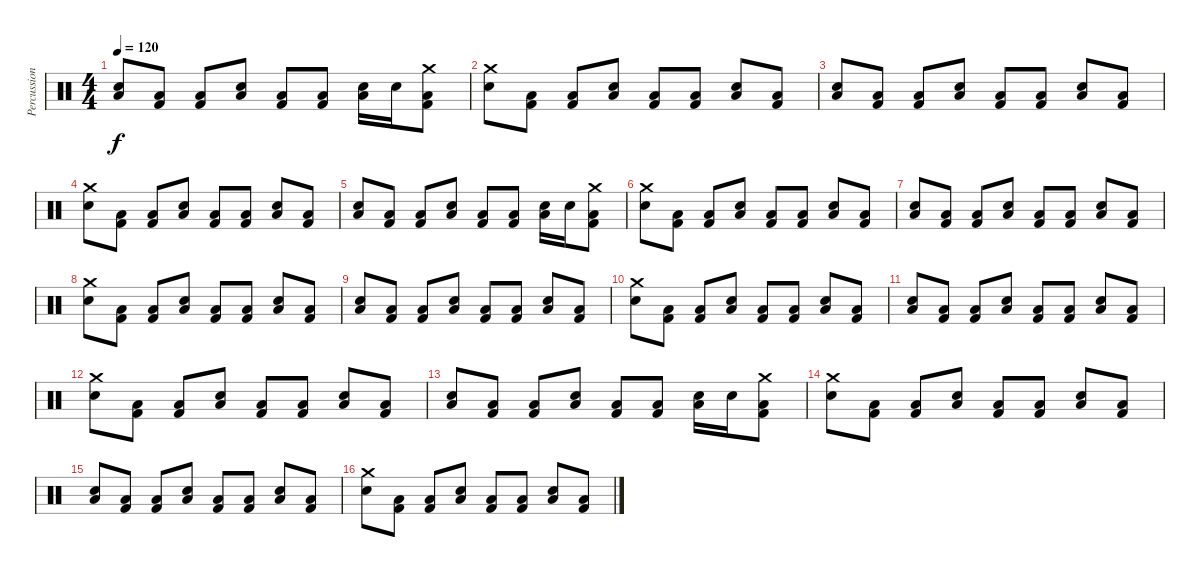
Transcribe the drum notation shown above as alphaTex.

\track ("Percussion" "Percussion") {instrument percussion}
\staff {score}
\articulation defaults
\ts (4 4)
\tempo 120
\clef neutral
\ks c
("Snare (hit) 2" "Low Floor Tom (hit)").8{dy f} ("Low Floor Tom (hit)" "Kick (hit) 2").8 ("Low Floor Tom (hit)" "Kick (hit) 2").8 ("Snare (hit) 2" "Low Floor Tom (hit)").8 ("Low Floor Tom (hit)" "Kick (hit) 2").8 ("Low Floor Tom (hit)" "Kick (hit) 2").8 ("Snare (hit) 2" "Low Floor Tom (hit)").16 "Snare (hit) 2".16 ("Crash medium (hit)" "Low Floor Tom (hit)" "Kick (hit) 2").8 |
("Crash medium (hit)" "Snare (hit) 2").8 ("Low Floor Tom (hit)" "Kick (hit) 2").8 ("Low Floor Tom (hit)" "Kick (hit) 2").8 ("Snare (hit) 2" "Low Floor Tom (hit)").8 ("Low Floor Tom (hit)" "Kick (hit) 2").8 ("Low Floor Tom (hit)" "Kick (hit) 2").8 ("Snare (hit) 2" "Low Floor Tom (hit)").8 ("Low Floor Tom (hit)" "Kick (hit) 2").8 |
("Snare (hit) 2" "Low Floor Tom (hit)").8 ("Low Floor Tom (hit)" "Kick (hit) 2").8 ("Low Floor Tom (hit)" "Kick (hit) 2").8 ("Snare (hit) 2" "Low Floor Tom (hit)").8 ("Low Floor Tom (hit)" "Kick (hit) 2").8 ("Low Floor Tom (hit)" "Kick (hit) 2").8 ("Snare (hit) 2" "Low Floor Tom (hit)").8 ("Low Floor Tom (hit)" "Kick (hit) 2").8 |
("Crash medium (hit)" "Snare (hit) 2").8 ("Low Floor Tom (hit)" "Kick (hit) 2").8 ("Low Floor Tom (hit)" "Kick (hit) 2").8 ("Snare (hit) 2" "Low Floor Tom (hit)").8 ("Low Floor Tom (hit)" "Kick (hit) 2").8 ("Low Floor Tom (hit)" "Kick (hit) 2").8 ("Snare (hit) 2" "Low Floor Tom (hit)").8 ("Low Floor Tom (hit)" "Kick (hit) 2").8 |
("Snare (hit) 2" "Low Floor Tom (hit)").8 ("Low Floor Tom (hit)" "Kick (hit) 2").8 ("Low Floor Tom (hit)" "Kick (hit) 2").8 ("Snare (hit) 2" "Low Floor Tom (hit)").8 ("Low Floor Tom (hit)" "Kick (hit) 2").8 ("Low Floor Tom (hit)" "Kick (hit) 2").8 ("Snare (hit) 2" "Low Floor Tom (hit)").16 "Snare (hit) 2".16 ("Crash medium (hit)" "Low Floor Tom (hit)" "Kick (hit) 2").8 |
("Crash medium (hit)" "Snare (hit) 2").8 ("Low Floor Tom (hit)" "Kick (hit) 2").8 ("Low Floor Tom (hit)" "Kick (hit) 2").8 ("Snare (hit) 2" "Low Floor Tom (hit)").8 ("Low Floor Tom (hit)" "Kick (hit) 2").8 ("Low Floor Tom (hit)" "Kick (hit) 2").8 ("Snare (hit) 2" "Low Floor Tom (hit)").8 ("Low Floor Tom (hit)" "Kick (hit) 2").8 |
("Snare (hit) 2" "Low Floor Tom (hit)").8 ("Low Floor Tom (hit)" "Kick (hit) 2").8 ("Low Floor Tom (hit)" "Kick (hit) 2").8 ("Snare (hit) 2" "Low Floor Tom (hit)").8 ("Low Floor Tom (hit)" "Kick (hit) 2").8 ("Low Floor Tom (hit)" "Kick (hit) 2").8 ("Snare (hit) 2" "Low Floor Tom (hit)").8 ("Low Floor Tom (hit)" "Kick (hit) 2").8 |
("Crash medium (hit)" "Snare (hit) 2").8 ("Low Floor Tom (hit)" "Kick (hit) 2").8 ("Low Floor Tom (hit)" "Kick (hit) 2").8 ("Snare (hit) 2" "Low Floor Tom (hit)").8 ("Low Floor Tom (hit)" "Kick (hit) 2").8 ("Low Floor Tom (hit)" "Kick (hit) 2").8 ("Snare (hit) 2" "Low Floor Tom (hit)").8 ("Low Floor Tom (hit)" "Kick (hit) 2").8 |
("Snare (hit) 2" "Low Floor Tom (hit)").8 ("Low Floor Tom (hit)" "Kick (hit) 2").8 ("Low Floor Tom (hit)" "Kick (hit) 2").8 ("Snare (hit) 2" "Low Floor Tom (hit)").8 ("Low Floor Tom (hit)" "Kick (hit) 2").8 ("Low Floor Tom (hit)" "Kick (hit) 2").8 ("Snare (hit) 2" "Low Floor Tom (hit)").8 ("Low Floor Tom (hit)" "Kick (hit) 2").8 |
("Crash medium (hit)" "Snare (hit) 2").8 ("Low Floor Tom (hit)" "Kick (hit) 2").8 ("Low Floor Tom (hit)" "Kick (hit) 2").8 ("Snare (hit) 2" "Low Floor Tom (hit)").8 ("Low Floor Tom (hit)" "Kick (hit) 2").8 ("Low Floor Tom (hit)" "Kick (hit) 2").8 ("Snare (hit) 2" "Low Floor Tom (hit)").8 ("Low Floor Tom (hit)" "Kick (hit) 2").8 |
("Snare (hit) 2" "Low Floor Tom (hit)").8 ("Low Floor Tom (hit)" "Kick (hit) 2").8 ("Low Floor Tom (hit)" "Kick (hit) 2").8 ("Snare (hit) 2" "Low Floor Tom (hit)").8 ("Low Floor Tom (hit)" "Kick (hit) 2").8 ("Low Floor Tom (hit)" "Kick (hit) 2").8 ("Snare (hit) 2" "Low Floor Tom (hit)").8 ("Low Floor Tom (hit)" "Kick (hit) 2").8 |
("Crash medium (hit)" "Snare (hit) 2").8 ("Low Floor Tom (hit)" "Kick (hit) 2").8 ("Low Floor Tom (hit)" "Kick (hit) 2").8 ("Snare (hit) 2" "Low Floor Tom (hit)").8 ("Low Floor Tom (hit)" "Kick (hit) 2").8 ("Low Floor Tom (hit)" "Kick (hit) 2").8 ("Snare (hit) 2" "Low Floor Tom (hit)").8 ("Low Floor Tom (hit)" "Kick (hit) 2").8 |
("Snare (hit) 2" "Low Floor Tom (hit)").8 ("Low Floor Tom (hit)" "Kick (hit) 2").8 ("Low Floor Tom (hit)" "Kick (hit) 2").8 ("Snare (hit) 2" "Low Floor Tom (hit)").8 ("Low Floor Tom (hit)" "Kick (hit) 2").8 ("Low Floor Tom (hit)" "Kick (hit) 2").8 ("Snare (hit) 2" "Low Floor Tom (hit)").16 "Snare (hit) 2".16 ("Crash medium (hit)" "Low Floor Tom (hit)" "Kick (hit) 2").8 |
("Crash medium (hit)" "Snare (hit) 2").8 ("Low Floor Tom (hit)" "Kick (hit) 2").8 ("Low Floor Tom (hit)" "Kick (hit) 2").8 ("Snare (hit) 2" "Low Floor Tom (hit)").8 ("Low Floor Tom (hit)" "Kick (hit) 2").8 ("Low Floor Tom (hit)" "Kick (hit) 2").8 ("Snare (hit) 2" "Low Floor Tom (hit)").8 ("Low Floor Tom (hit)" "Kick (hit) 2").8 |
("Snare (hit) 2" "Low Floor Tom (hit)").8 ("Low Floor Tom (hit)" "Kick (hit) 2").8 ("Low Floor Tom (hit)" "Kick (hit) 2").8 ("Snare (hit) 2" "Low Floor Tom (hit)").8 ("Low Floor Tom (hit)" "Kick (hit) 2").8 ("Low Floor Tom (hit)" "Kick (hit) 2").8 ("Snare (hit) 2" "Low Floor Tom (hit)").8 ("Low Floor Tom (hit)" "Kick (hit) 2").8 |
("Crash medium (hit)" "Snare (hit) 2").8 ("Low Floor Tom (hit)" "Kick (hit) 2").8 ("Low Floor Tom (hit)" "Kick (hit) 2").8 ("Snare (hit) 2" "Low Floor Tom (hit)").8 ("Low Floor Tom (hit)" "Kick (hit) 2").8 ("Low Floor Tom (hit)" "Kick (hit) 2").8 ("Snare (hit) 2" "Low Floor Tom (hit)").8 ("Low Floor Tom (hit)" "Kick (hit) 2").8
